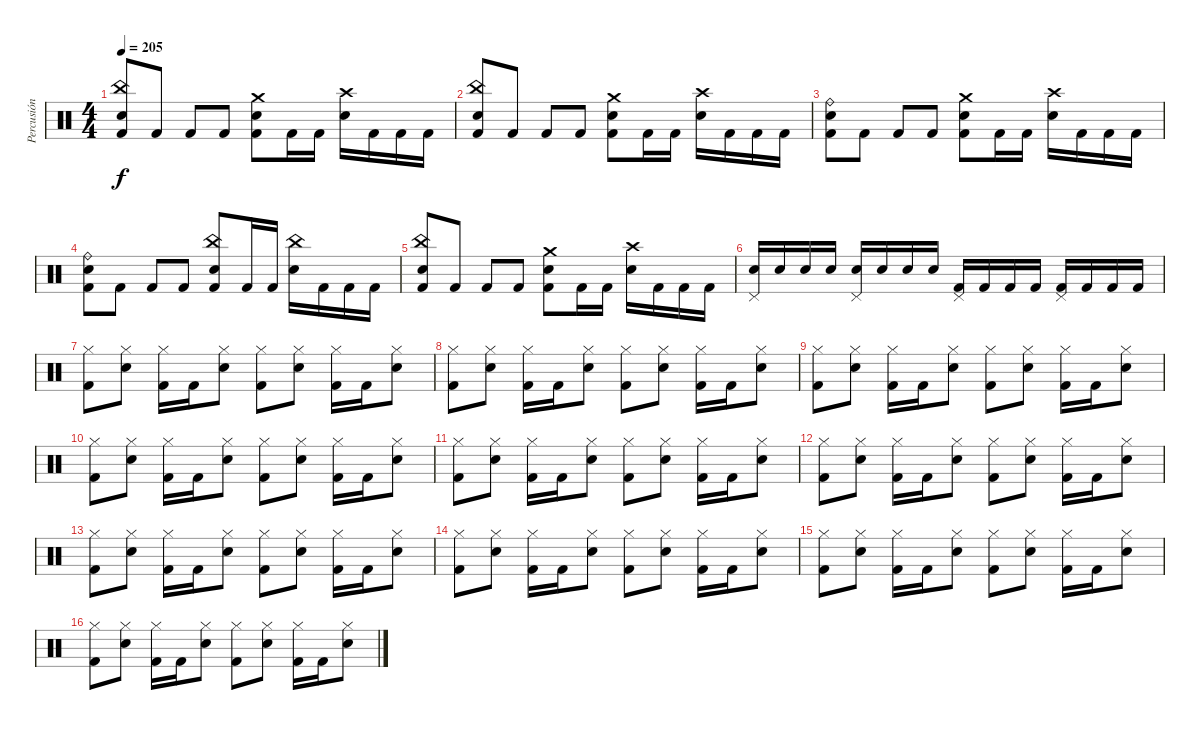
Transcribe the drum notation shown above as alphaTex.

\track ("Percusión" "Percusión") {instrument percussion}
\staff {score}
\articulation defaults
\ts (4 4)
\tempo 205
\clef neutral
\ks c
("Snare (hit) 2" "China (hit)" "Kick (hit) 2").8{dy f} "Kick (hit) 2".8 "Kick (hit) 2".8 "Kick (hit) 2".8 ("Snare (hit) 2" "Crash medium (hit)" "Kick (hit) 2").8 "Kick (hit) 2".16 "Kick (hit) 2".16 ("Crash high (hit)" "Snare (hit) 2").16 "Kick (hit) 2".16 "Kick (hit) 2".16 "Kick (hit) 2".16 |
("Snare (hit) 2" "China (hit)" "Kick (hit) 2").8 "Kick (hit) 2".8 "Kick (hit) 2".8 "Kick (hit) 2".8 ("Snare (hit) 2" "Crash medium (hit)" "Kick (hit) 2").8 "Kick (hit) 2".16 "Kick (hit) 2".16 ("Crash high (hit)" "Snare (hit) 2").16 "Kick (hit) 2".16 "Kick (hit) 2".16 "Kick (hit) 2".16 |
("Snare (hit) 2" "Ride (bell)" "Kick (hit) 2").8 "Kick (hit) 2".8 "Kick (hit) 2".8 "Kick (hit) 2".8 ("Snare (hit) 2" "Crash medium (hit)" "Kick (hit) 2").8 "Kick (hit) 2".16 "Kick (hit) 2".16 ("Crash high (hit)" "Snare (hit) 2").16 "Kick (hit) 2".16 "Kick (hit) 2".16 "Kick (hit) 2".16 |
("Snare (hit) 2" "Ride (bell)" "Kick (hit) 2").8 "Kick (hit) 2".8 "Kick (hit) 2".8 "Kick (hit) 2".8 ("Snare (hit) 2" "China (hit)" "Kick (hit) 2").8 "Kick (hit) 2".16 "Kick (hit) 2".16 ("China (hit)" "Snare (hit) 2").16 "Kick (hit) 2".16 "Kick (hit) 2".16 "Kick (hit) 2".16 |
("Snare (hit) 2" "China (hit)" "Kick (hit) 2").8 "Kick (hit) 2".8 "Kick (hit) 2".8 "Kick (hit) 2".8 ("Snare (hit) 2" "Crash medium (hit)" "Kick (hit) 2").8 "Kick (hit) 2".16 "Kick (hit) 2".16 ("Crash high (hit)" "Snare (hit) 2").16 "Kick (hit) 2".16 "Kick (hit) 2".16 "Kick (hit) 2".16 |
("Pedal Hi-Hat (hit)" "Snare (hit) 2").16 "Snare (hit) 2".16 "Snare (hit) 2".16 "Snare (hit) 2".16 ("Pedal Hi-Hat (hit)" "Snare (hit) 2").16 "Snare (hit) 2".16 "Snare (hit) 2".16 "Snare (hit) 2".16 ("Pedal Hi-Hat (hit)" "Kick (hit) 2").16 "Kick (hit) 2".16 "Kick (hit) 2".16 "Kick (hit) 2".16 ("Pedal Hi-Hat (hit)" "Kick (hit) 2").16 "Kick (hit) 2".16 "Kick (hit) 2".16 "Kick (hit) 2".16 |
("Hi-Hat (closed)" "Kick (hit) 2").8 ("Hi-Hat (closed)" "Snare (hit) 2").8 ("Hi-Hat (closed)" "Kick (hit) 2").16 "Kick (hit) 2".16 ("Hi-Hat (closed)" "Snare (hit) 2").8 ("Hi-Hat (closed)" "Kick (hit) 2").8 ("Hi-Hat (closed)" "Snare (hit) 2").8 ("Hi-Hat (closed)" "Kick (hit) 2").16 "Kick (hit) 2".16 ("Hi-Hat (closed)" "Snare (hit) 2").8 |
("Hi-Hat (closed)" "Kick (hit) 2").8 ("Hi-Hat (closed)" "Snare (hit) 2").8 ("Hi-Hat (closed)" "Kick (hit) 2").16 "Kick (hit) 2".16 ("Hi-Hat (closed)" "Snare (hit) 2").8 ("Hi-Hat (closed)" "Kick (hit) 2").8 ("Hi-Hat (closed)" "Snare (hit) 2").8 ("Hi-Hat (closed)" "Kick (hit) 2").16 "Kick (hit) 2".16 ("Hi-Hat (closed)" "Snare (hit) 2").8 |
("Hi-Hat (closed)" "Kick (hit) 2").8 ("Hi-Hat (closed)" "Snare (hit) 2").8 ("Hi-Hat (closed)" "Kick (hit) 2").16 "Kick (hit) 2".16 ("Hi-Hat (closed)" "Snare (hit) 2").8 ("Hi-Hat (closed)" "Kick (hit) 2").8 ("Hi-Hat (closed)" "Snare (hit) 2").8 ("Hi-Hat (closed)" "Kick (hit) 2").16 "Kick (hit) 2".16 ("Hi-Hat (closed)" "Snare (hit) 2").8 |
("Hi-Hat (closed)" "Kick (hit) 2").8 ("Hi-Hat (closed)" "Snare (hit) 2").8 ("Hi-Hat (closed)" "Kick (hit) 2").16 "Kick (hit) 2".16 ("Hi-Hat (closed)" "Snare (hit) 2").8 ("Hi-Hat (closed)" "Kick (hit) 2").8 ("Hi-Hat (closed)" "Snare (hit) 2").8 ("Hi-Hat (closed)" "Kick (hit) 2").16 "Kick (hit) 2".16 ("Hi-Hat (closed)" "Snare (hit) 2").8 |
("Hi-Hat (closed)" "Kick (hit) 2").8 ("Hi-Hat (closed)" "Snare (hit) 2").8 ("Hi-Hat (closed)" "Kick (hit) 2").16 "Kick (hit) 2".16 ("Hi-Hat (closed)" "Snare (hit) 2").8 ("Hi-Hat (closed)" "Kick (hit) 2").8 ("Hi-Hat (closed)" "Snare (hit) 2").8 ("Hi-Hat (closed)" "Kick (hit) 2").16 "Kick (hit) 2".16 ("Hi-Hat (closed)" "Snare (hit) 2").8 |
("Hi-Hat (closed)" "Kick (hit) 2").8 ("Hi-Hat (closed)" "Snare (hit) 2").8 ("Hi-Hat (closed)" "Kick (hit) 2").16 "Kick (hit) 2".16 ("Hi-Hat (closed)" "Snare (hit) 2").8 ("Hi-Hat (closed)" "Kick (hit) 2").8 ("Hi-Hat (closed)" "Snare (hit) 2").8 ("Hi-Hat (closed)" "Kick (hit) 2").16 "Kick (hit) 2".16 ("Hi-Hat (closed)" "Snare (hit) 2").8 |
("Hi-Hat (closed)" "Kick (hit) 2").8 ("Hi-Hat (closed)" "Snare (hit) 2").8 ("Hi-Hat (closed)" "Kick (hit) 2").16 "Kick (hit) 2".16 ("Hi-Hat (closed)" "Snare (hit) 2").8 ("Hi-Hat (closed)" "Kick (hit) 2").8 ("Hi-Hat (closed)" "Snare (hit) 2").8 ("Hi-Hat (closed)" "Kick (hit) 2").16 "Kick (hit) 2".16 ("Hi-Hat (closed)" "Snare (hit) 2").8 |
("Hi-Hat (closed)" "Kick (hit) 2").8 ("Hi-Hat (closed)" "Snare (hit) 2").8 ("Hi-Hat (closed)" "Kick (hit) 2").16 "Kick (hit) 2".16 ("Hi-Hat (closed)" "Snare (hit) 2").8 ("Hi-Hat (closed)" "Kick (hit) 2").8 ("Hi-Hat (closed)" "Snare (hit) 2").8 ("Hi-Hat (closed)" "Kick (hit) 2").16 "Kick (hit) 2".16 ("Hi-Hat (closed)" "Snare (hit) 2").8 |
("Hi-Hat (closed)" "Kick (hit) 2").8 ("Hi-Hat (closed)" "Snare (hit) 2").8 ("Hi-Hat (closed)" "Kick (hit) 2").16 "Kick (hit) 2".16 ("Hi-Hat (closed)" "Snare (hit) 2").8 ("Hi-Hat (closed)" "Kick (hit) 2").8 ("Hi-Hat (closed)" "Snare (hit) 2").8 ("Hi-Hat (closed)" "Kick (hit) 2").16 "Kick (hit) 2".16 ("Hi-Hat (closed)" "Snare (hit) 2").8 |
("Hi-Hat (closed)" "Kick (hit) 2").8 ("Hi-Hat (closed)" "Snare (hit) 2").8 ("Hi-Hat (closed)" "Kick (hit) 2").16 "Kick (hit) 2".16 ("Hi-Hat (closed)" "Snare (hit) 2").8 ("Hi-Hat (closed)" "Kick (hit) 2").8 ("Hi-Hat (closed)" "Snare (hit) 2").8 ("Hi-Hat (closed)" "Kick (hit) 2").16 "Kick (hit) 2".16 ("Hi-Hat (closed)" "Snare (hit) 2").8
